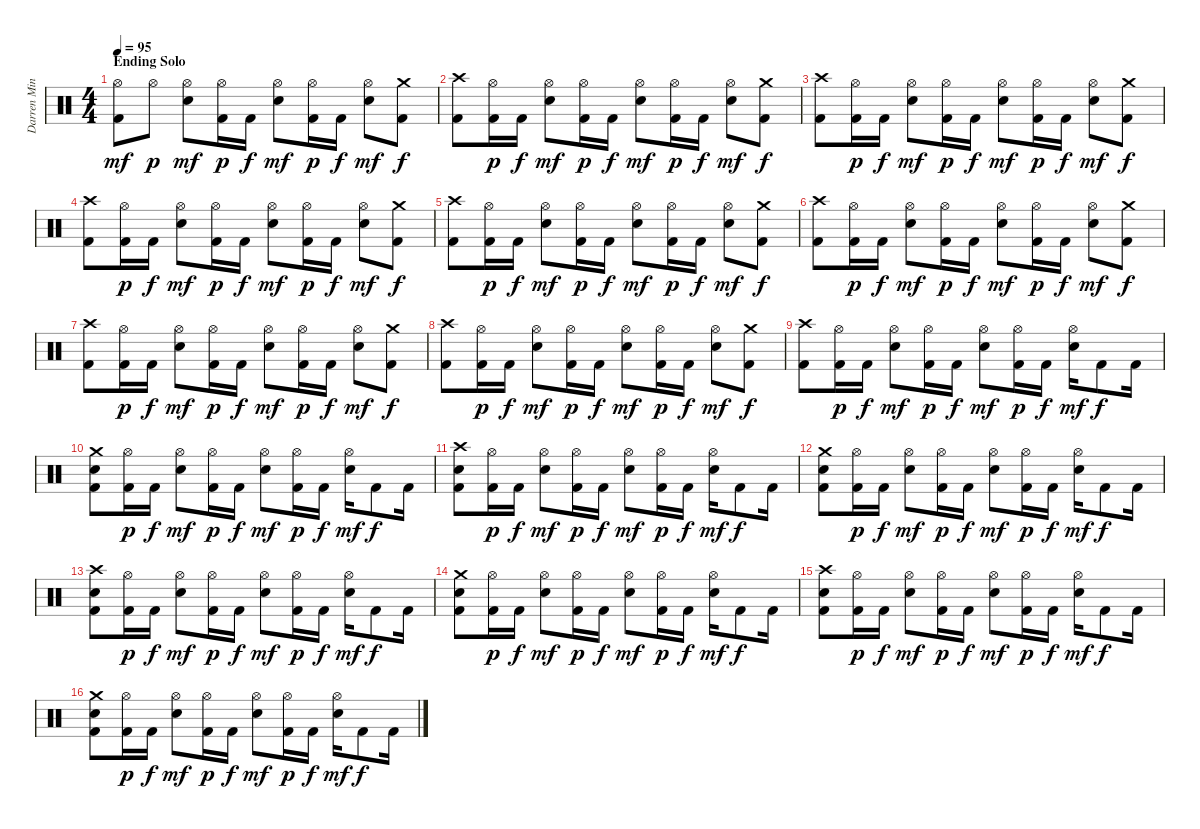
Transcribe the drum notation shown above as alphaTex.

\track ("Darren Minter" "Darren Min") {instrument percussion}
\staff {score}
\articulation defaults
\ts (4 4)
\section ("" "Ending Solo")
\tempo 95
\clef neutral
\ks c
("Kick (hit) 2" "Hi-Hat (open)").8{dy mf} "Hi-Hat (open)".8{dy p} ("Hi-Hat (open)" "Snare (hit) 2").8{dy mf} ("Kick (hit) 2" "Hi-Hat (open)").16{dy p} "Kick (hit) 2".16{dy f} ("Hi-Hat (open)" "Snare (hit) 2").8{dy mf} ("Kick (hit) 2" "Hi-Hat (open)").16{dy p} "Kick (hit) 2".16{dy f} ("Hi-Hat (open)" "Snare (hit) 2").8{dy mf} ("Kick (hit) 2" "Crash medium (hit)").8{dy f} |
("Kick (hit) 2" "Crash high (hit)").8 ("Kick (hit) 2" "Hi-Hat (open)").16{dy p} "Kick (hit) 2".16{dy f} ("Hi-Hat (open)" "Snare (hit) 2").8{dy mf} ("Kick (hit) 2" "Hi-Hat (open)").16{dy p} "Kick (hit) 2".16{dy f} ("Hi-Hat (open)" "Snare (hit) 2").8{dy mf} ("Kick (hit) 2" "Hi-Hat (open)").16{dy p} "Kick (hit) 2".16{dy f} ("Hi-Hat (open)" "Snare (hit) 2").8{dy mf} ("Kick (hit) 2" "Crash medium (hit)").8{dy f} |
("Kick (hit) 2" "Crash high (hit)").8 ("Kick (hit) 2" "Hi-Hat (open)").16{dy p} "Kick (hit) 2".16{dy f} ("Hi-Hat (open)" "Snare (hit) 2").8{dy mf} ("Kick (hit) 2" "Hi-Hat (open)").16{dy p} "Kick (hit) 2".16{dy f} ("Hi-Hat (open)" "Snare (hit) 2").8{dy mf} ("Kick (hit) 2" "Hi-Hat (open)").16{dy p} "Kick (hit) 2".16{dy f} ("Hi-Hat (open)" "Snare (hit) 2").8{dy mf} ("Kick (hit) 2" "Crash medium (hit)").8{dy f} |
("Kick (hit) 2" "Crash high (hit)").8 ("Kick (hit) 2" "Hi-Hat (open)").16{dy p} "Kick (hit) 2".16{dy f} ("Hi-Hat (open)" "Snare (hit) 2").8{dy mf} ("Kick (hit) 2" "Hi-Hat (open)").16{dy p} "Kick (hit) 2".16{dy f} ("Hi-Hat (open)" "Snare (hit) 2").8{dy mf} ("Kick (hit) 2" "Hi-Hat (open)").16{dy p} "Kick (hit) 2".16{dy f} ("Hi-Hat (open)" "Snare (hit) 2").8{dy mf} ("Kick (hit) 2" "Crash medium (hit)").8{dy f} |
("Kick (hit) 2" "Crash high (hit)").8 ("Kick (hit) 2" "Hi-Hat (open)").16{dy p} "Kick (hit) 2".16{dy f} ("Hi-Hat (open)" "Snare (hit) 2").8{dy mf} ("Kick (hit) 2" "Hi-Hat (open)").16{dy p} "Kick (hit) 2".16{dy f} ("Hi-Hat (open)" "Snare (hit) 2").8{dy mf} ("Kick (hit) 2" "Hi-Hat (open)").16{dy p} "Kick (hit) 2".16{dy f} ("Hi-Hat (open)" "Snare (hit) 2").8{dy mf} ("Kick (hit) 2" "Crash medium (hit)").8{dy f} |
("Kick (hit) 2" "Crash high (hit)").8 ("Kick (hit) 2" "Hi-Hat (open)").16{dy p} "Kick (hit) 2".16{dy f} ("Hi-Hat (open)" "Snare (hit) 2").8{dy mf} ("Kick (hit) 2" "Hi-Hat (open)").16{dy p} "Kick (hit) 2".16{dy f} ("Hi-Hat (open)" "Snare (hit) 2").8{dy mf} ("Kick (hit) 2" "Hi-Hat (open)").16{dy p} "Kick (hit) 2".16{dy f} ("Hi-Hat (open)" "Snare (hit) 2").8{dy mf} ("Kick (hit) 2" "Crash medium (hit)").8{dy f} |
("Kick (hit) 2" "Crash high (hit)").8 ("Kick (hit) 2" "Hi-Hat (open)").16{dy p} "Kick (hit) 2".16{dy f} ("Hi-Hat (open)" "Snare (hit) 2").8{dy mf} ("Kick (hit) 2" "Hi-Hat (open)").16{dy p} "Kick (hit) 2".16{dy f} ("Hi-Hat (open)" "Snare (hit) 2").8{dy mf} ("Kick (hit) 2" "Hi-Hat (open)").16{dy p} "Kick (hit) 2".16{dy f} ("Hi-Hat (open)" "Snare (hit) 2").8{dy mf} ("Kick (hit) 2" "Crash medium (hit)").8{dy f} |
("Kick (hit) 2" "Crash high (hit)").8 ("Kick (hit) 2" "Hi-Hat (open)").16{dy p} "Kick (hit) 2".16{dy f} ("Hi-Hat (open)" "Snare (hit) 2").8{dy mf} ("Kick (hit) 2" "Hi-Hat (open)").16{dy p} "Kick (hit) 2".16{dy f} ("Hi-Hat (open)" "Snare (hit) 2").8{dy mf} ("Kick (hit) 2" "Hi-Hat (open)").16{dy p} "Kick (hit) 2".16{dy f} ("Hi-Hat (open)" "Snare (hit) 2").8{dy mf} ("Kick (hit) 2" "Crash medium (hit)").8{dy f} |
("Kick (hit) 2" "Crash high (hit)").8 ("Kick (hit) 2" "Hi-Hat (open)").16{dy p} "Kick (hit) 2".16{dy f} ("Hi-Hat (open)" "Snare (hit) 2").8{dy mf} ("Kick (hit) 2" "Hi-Hat (open)").16{dy p} "Kick (hit) 2".16{dy f} ("Hi-Hat (open)" "Snare (hit) 2").8{dy mf} ("Kick (hit) 2" "Hi-Hat (open)").16{dy p} "Kick (hit) 2".16{dy f} ("Hi-Hat (open)" "Snare (hit) 2").16{dy mf} "Kick (hit) 2".8{dy f} "Kick (hit) 2".16 |
("Kick (hit) 2" "Crash medium (hit)" "Snare (hit) 2").8 ("Kick (hit) 2" "Hi-Hat (open)").16{dy p} "Kick (hit) 2".16{dy f} ("Hi-Hat (open)" "Snare (hit) 2").8{dy mf} ("Kick (hit) 2" "Hi-Hat (open)").16{dy p} "Kick (hit) 2".16{dy f} ("Hi-Hat (open)" "Snare (hit) 2").8{dy mf} ("Kick (hit) 2" "Hi-Hat (open)").16{dy p} "Kick (hit) 2".16{dy f} ("Hi-Hat (open)" "Snare (hit) 2").16{dy mf} "Kick (hit) 2".8{dy f} "Kick (hit) 2".16 |
("Kick (hit) 2" "Crash high (hit)" "Snare (hit) 2").8 ("Kick (hit) 2" "Hi-Hat (open)").16{dy p} "Kick (hit) 2".16{dy f} ("Hi-Hat (open)" "Snare (hit) 2").8{dy mf} ("Kick (hit) 2" "Hi-Hat (open)").16{dy p} "Kick (hit) 2".16{dy f} ("Hi-Hat (open)" "Snare (hit) 2").8{dy mf} ("Kick (hit) 2" "Hi-Hat (open)").16{dy p} "Kick (hit) 2".16{dy f} ("Hi-Hat (open)" "Snare (hit) 2").16{dy mf} "Kick (hit) 2".8{dy f} "Kick (hit) 2".16 |
("Kick (hit) 2" "Crash medium (hit)" "Snare (hit) 2").8 ("Kick (hit) 2" "Hi-Hat (open)").16{dy p} "Kick (hit) 2".16{dy f} ("Hi-Hat (open)" "Snare (hit) 2").8{dy mf} ("Kick (hit) 2" "Hi-Hat (open)").16{dy p} "Kick (hit) 2".16{dy f} ("Hi-Hat (open)" "Snare (hit) 2").8{dy mf} ("Kick (hit) 2" "Hi-Hat (open)").16{dy p} "Kick (hit) 2".16{dy f} ("Hi-Hat (open)" "Snare (hit) 2").16{dy mf} "Kick (hit) 2".8{dy f} "Kick (hit) 2".16 |
("Kick (hit) 2" "Crash high (hit)" "Snare (hit) 2").8 ("Kick (hit) 2" "Hi-Hat (open)").16{dy p} "Kick (hit) 2".16{dy f} ("Hi-Hat (open)" "Snare (hit) 2").8{dy mf} ("Kick (hit) 2" "Hi-Hat (open)").16{dy p} "Kick (hit) 2".16{dy f} ("Hi-Hat (open)" "Snare (hit) 2").8{dy mf} ("Kick (hit) 2" "Hi-Hat (open)").16{dy p} "Kick (hit) 2".16{dy f} ("Hi-Hat (open)" "Snare (hit) 2").16{dy mf} "Kick (hit) 2".8{dy f} "Kick (hit) 2".16 |
("Kick (hit) 2" "Crash medium (hit)" "Snare (hit) 2").8 ("Kick (hit) 2" "Hi-Hat (open)").16{dy p} "Kick (hit) 2".16{dy f} ("Hi-Hat (open)" "Snare (hit) 2").8{dy mf} ("Kick (hit) 2" "Hi-Hat (open)").16{dy p} "Kick (hit) 2".16{dy f} ("Hi-Hat (open)" "Snare (hit) 2").8{dy mf} ("Kick (hit) 2" "Hi-Hat (open)").16{dy p} "Kick (hit) 2".16{dy f} ("Hi-Hat (open)" "Snare (hit) 2").16{dy mf} "Kick (hit) 2".8{dy f} "Kick (hit) 2".16 |
("Kick (hit) 2" "Crash high (hit)" "Snare (hit) 2").8 ("Kick (hit) 2" "Hi-Hat (open)").16{dy p} "Kick (hit) 2".16{dy f} ("Hi-Hat (open)" "Snare (hit) 2").8{dy mf} ("Kick (hit) 2" "Hi-Hat (open)").16{dy p} "Kick (hit) 2".16{dy f} ("Hi-Hat (open)" "Snare (hit) 2").8{dy mf} ("Kick (hit) 2" "Hi-Hat (open)").16{dy p} "Kick (hit) 2".16{dy f} ("Hi-Hat (open)" "Snare (hit) 2").16{dy mf} "Kick (hit) 2".8{dy f} "Kick (hit) 2".16 |
("Kick (hit) 2" "Crash medium (hit)" "Snare (hit) 2").8 ("Kick (hit) 2" "Hi-Hat (open)").16{dy p} "Kick (hit) 2".16{dy f} ("Hi-Hat (open)" "Snare (hit) 2").8{dy mf} ("Kick (hit) 2" "Hi-Hat (open)").16{dy p} "Kick (hit) 2".16{dy f} ("Hi-Hat (open)" "Snare (hit) 2").8{dy mf} ("Kick (hit) 2" "Hi-Hat (open)").16{dy p} "Kick (hit) 2".16{dy f} ("Hi-Hat (open)" "Snare (hit) 2").16{dy mf} "Kick (hit) 2".8{dy f} "Kick (hit) 2".16
